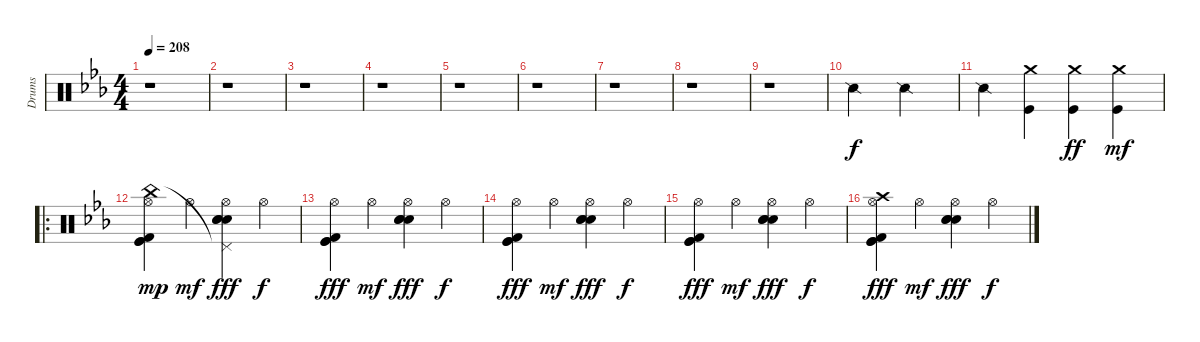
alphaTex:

\track ("Drums" "Drums") {instrument percussion}
\staff {score}
\articulation defaults
\ts (4 4)
\tempo 208
\clef neutral
\ks cminor
r.1{dy f} |
r.1 |
r.1 |
r.1 |
r.1 |
r.1 |
r.1 |
r.1 |
r.1 |
"Snare (side stick) 2".2 "Snare (side stick) 2".2 |
"Snare (side stick) 2".4 ("Kick (hit)" "Crash medium (hit)").4 ("Kick (hit)" "Crash medium (hit)").4{dy ff} ("Kick (hit)" "Crash medium (hit)").4{dy mf} |
\ro
("Kick (hit) 2" "Kick (hit)" "Kick (hit)" "Hi-Hat (open)" "China (hit)").4{dy mp} "Hi-Hat (open)".4{dy mf} ("Snare (hit) 2" "Electric Snare (hit)" "Electric Snare (hit)" "Hi-Hat (open)" "Pedal Hi-Hat (hit)"{t}).4{dy fff} "Hi-Hat (open)".4{dy f} |
("Kick (hit) 2" "Kick (hit)" "Kick (hit)" "Hi-Hat (open)").4{dy fff} "Hi-Hat (open)".4{dy mf} ("Snare (hit) 2" "Electric Snare (hit)" "Electric Snare (hit)" "Hi-Hat (open)").4{dy fff} "Hi-Hat (open)".4{dy f} |
("Kick (hit) 2" "Kick (hit)" "Kick (hit)" "Hi-Hat (open)").4{dy fff} "Hi-Hat (open)".4{dy mf} ("Snare (hit) 2" "Electric Snare (hit)" "Electric Snare (hit)" "Hi-Hat (open)").4{dy fff} "Hi-Hat (open)".4{dy f} |
("Kick (hit) 2" "Kick (hit)" "Kick (hit)" "Hi-Hat (open)").4{dy fff} "Hi-Hat (open)".4{dy mf} ("Snare (hit) 2" "Electric Snare (hit)" "Electric Snare (hit)" "Hi-Hat (open)").4{dy fff} "Hi-Hat (open)".4{dy f} |
("Crash high (hit)" "Kick (hit) 2" "Kick (hit)" "Kick (hit)" "Hi-Hat (open)").4{dy fff} "Hi-Hat (open)".4{dy mf} ("Snare (hit) 2" "Electric Snare (hit)" "Electric Snare (hit)" "Hi-Hat (open)").4{dy fff} "Hi-Hat (open)".4{dy f}
